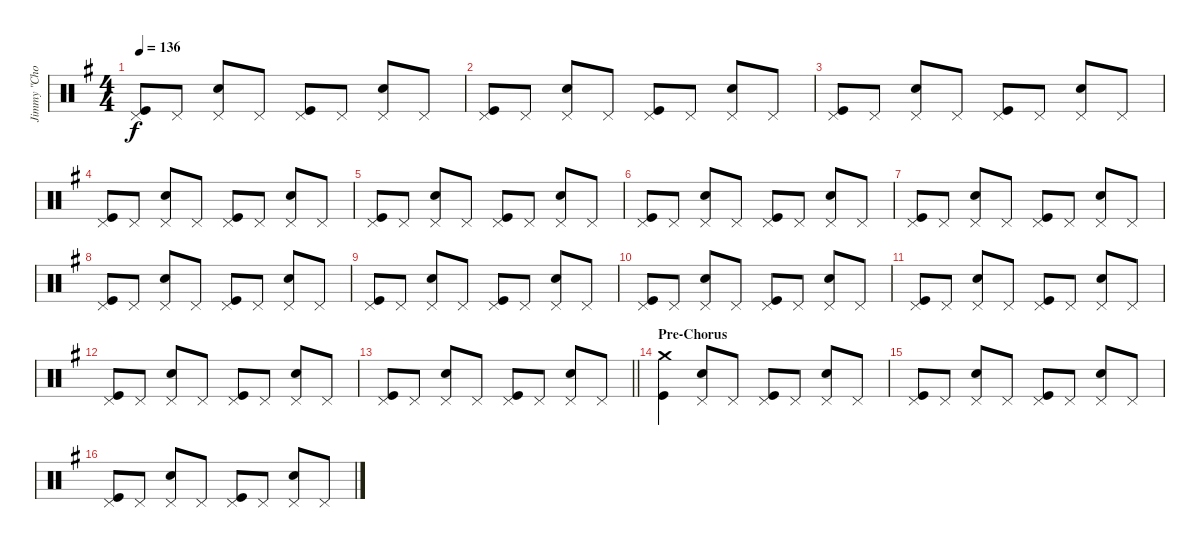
\track ("Jimmy \"Chocolate\" Chalfant" "Jimmy \"Cho") {instrument percussion}
\staff {score}
\articulation defaults
\ts (4 4)
\tempo 136
\clef neutral
\ks g
("Pedal Hi-Hat (hit)" "Kick (hit)").8{dy f} "Pedal Hi-Hat (hit)".8 ("Pedal Hi-Hat (hit)" "Snare (hit) 2").8 "Pedal Hi-Hat (hit)".8 ("Pedal Hi-Hat (hit)" "Kick (hit)").8 "Pedal Hi-Hat (hit)".8 ("Pedal Hi-Hat (hit)" "Snare (hit) 2").8 "Pedal Hi-Hat (hit)".8 |
("Pedal Hi-Hat (hit)" "Kick (hit)").8 "Pedal Hi-Hat (hit)".8 ("Pedal Hi-Hat (hit)" "Snare (hit) 2").8 "Pedal Hi-Hat (hit)".8 ("Pedal Hi-Hat (hit)" "Kick (hit)").8 "Pedal Hi-Hat (hit)".8 ("Pedal Hi-Hat (hit)" "Snare (hit) 2").8 "Pedal Hi-Hat (hit)".8 |
("Pedal Hi-Hat (hit)" "Kick (hit)").8 "Pedal Hi-Hat (hit)".8 ("Pedal Hi-Hat (hit)" "Snare (hit) 2").8 "Pedal Hi-Hat (hit)".8 ("Pedal Hi-Hat (hit)" "Kick (hit)").8 "Pedal Hi-Hat (hit)".8 ("Pedal Hi-Hat (hit)" "Snare (hit) 2").8 "Pedal Hi-Hat (hit)".8 |
("Pedal Hi-Hat (hit)" "Kick (hit)").8 "Pedal Hi-Hat (hit)".8 ("Pedal Hi-Hat (hit)" "Snare (hit) 2").8 "Pedal Hi-Hat (hit)".8 ("Pedal Hi-Hat (hit)" "Kick (hit)").8 "Pedal Hi-Hat (hit)".8 ("Pedal Hi-Hat (hit)" "Snare (hit) 2").8 "Pedal Hi-Hat (hit)".8 |
("Pedal Hi-Hat (hit)" "Kick (hit)").8 "Pedal Hi-Hat (hit)".8 ("Pedal Hi-Hat (hit)" "Snare (hit) 2").8 "Pedal Hi-Hat (hit)".8 ("Pedal Hi-Hat (hit)" "Kick (hit)").8 "Pedal Hi-Hat (hit)".8 ("Pedal Hi-Hat (hit)" "Snare (hit) 2").8 "Pedal Hi-Hat (hit)".8 |
("Pedal Hi-Hat (hit)" "Kick (hit)").8 "Pedal Hi-Hat (hit)".8 ("Pedal Hi-Hat (hit)" "Snare (hit) 2").8 "Pedal Hi-Hat (hit)".8 ("Pedal Hi-Hat (hit)" "Kick (hit)").8 "Pedal Hi-Hat (hit)".8 ("Pedal Hi-Hat (hit)" "Snare (hit) 2").8 "Pedal Hi-Hat (hit)".8 |
("Pedal Hi-Hat (hit)" "Kick (hit)").8 "Pedal Hi-Hat (hit)".8 ("Pedal Hi-Hat (hit)" "Snare (hit) 2").8 "Pedal Hi-Hat (hit)".8 ("Pedal Hi-Hat (hit)" "Kick (hit)").8 "Pedal Hi-Hat (hit)".8 ("Pedal Hi-Hat (hit)" "Snare (hit) 2").8 "Pedal Hi-Hat (hit)".8 |
("Pedal Hi-Hat (hit)" "Kick (hit)").8 "Pedal Hi-Hat (hit)".8 ("Pedal Hi-Hat (hit)" "Snare (hit) 2").8 "Pedal Hi-Hat (hit)".8 ("Pedal Hi-Hat (hit)" "Kick (hit)").8 "Pedal Hi-Hat (hit)".8 ("Pedal Hi-Hat (hit)" "Snare (hit) 2").8 "Pedal Hi-Hat (hit)".8 |
("Pedal Hi-Hat (hit)" "Kick (hit)").8 "Pedal Hi-Hat (hit)".8 ("Pedal Hi-Hat (hit)" "Snare (hit) 2").8 "Pedal Hi-Hat (hit)".8 ("Pedal Hi-Hat (hit)" "Kick (hit)").8 "Pedal Hi-Hat (hit)".8 ("Pedal Hi-Hat (hit)" "Snare (hit) 2").8 "Pedal Hi-Hat (hit)".8 |
("Pedal Hi-Hat (hit)" "Kick (hit)").8 "Pedal Hi-Hat (hit)".8 ("Pedal Hi-Hat (hit)" "Snare (hit) 2").8 "Pedal Hi-Hat (hit)".8 ("Pedal Hi-Hat (hit)" "Kick (hit)").8 "Pedal Hi-Hat (hit)".8 ("Pedal Hi-Hat (hit)" "Snare (hit) 2").8 "Pedal Hi-Hat (hit)".8 |
("Pedal Hi-Hat (hit)" "Kick (hit)").8 "Pedal Hi-Hat (hit)".8 ("Pedal Hi-Hat (hit)" "Snare (hit) 2").8 "Pedal Hi-Hat (hit)".8 ("Pedal Hi-Hat (hit)" "Kick (hit)").8 "Pedal Hi-Hat (hit)".8 ("Pedal Hi-Hat (hit)" "Snare (hit) 2").8 "Pedal Hi-Hat (hit)".8 |
("Pedal Hi-Hat (hit)" "Kick (hit)").8 "Pedal Hi-Hat (hit)".8 ("Pedal Hi-Hat (hit)" "Snare (hit) 2").8 "Pedal Hi-Hat (hit)".8 ("Pedal Hi-Hat (hit)" "Kick (hit)").8 "Pedal Hi-Hat (hit)".8 ("Pedal Hi-Hat (hit)" "Snare (hit) 2").8 "Pedal Hi-Hat (hit)".8 |
\barLineRight lightlight
("Pedal Hi-Hat (hit)" "Kick (hit)").8 "Pedal Hi-Hat (hit)".8 ("Pedal Hi-Hat (hit)" "Snare (hit) 2").8 "Pedal Hi-Hat (hit)".8 ("Pedal Hi-Hat (hit)" "Kick (hit)").8 "Pedal Hi-Hat (hit)".8 ("Pedal Hi-Hat (hit)" "Snare (hit) 2").8 "Pedal Hi-Hat (hit)".8 |
\section ("" "Pre-Chorus")
("Crash medium (hit)" "Kick (hit)").4 ("Pedal Hi-Hat (hit)" "Snare (hit) 2").8 "Pedal Hi-Hat (hit)".8 ("Pedal Hi-Hat (hit)" "Kick (hit)").8 "Pedal Hi-Hat (hit)".8 ("Pedal Hi-Hat (hit)" "Snare (hit) 2").8 "Pedal Hi-Hat (hit)".8 |
("Pedal Hi-Hat (hit)" "Kick (hit)").8 "Pedal Hi-Hat (hit)".8 ("Pedal Hi-Hat (hit)" "Snare (hit) 2").8 "Pedal Hi-Hat (hit)".8 ("Pedal Hi-Hat (hit)" "Kick (hit)").8 "Pedal Hi-Hat (hit)".8 ("Pedal Hi-Hat (hit)" "Snare (hit) 2").8 "Pedal Hi-Hat (hit)".8 |
("Pedal Hi-Hat (hit)" "Kick (hit)").8 "Pedal Hi-Hat (hit)".8 ("Pedal Hi-Hat (hit)" "Snare (hit) 2").8 "Pedal Hi-Hat (hit)".8 ("Pedal Hi-Hat (hit)" "Kick (hit)").8 "Pedal Hi-Hat (hit)".8 ("Pedal Hi-Hat (hit)" "Snare (hit) 2").8 "Pedal Hi-Hat (hit)".8
